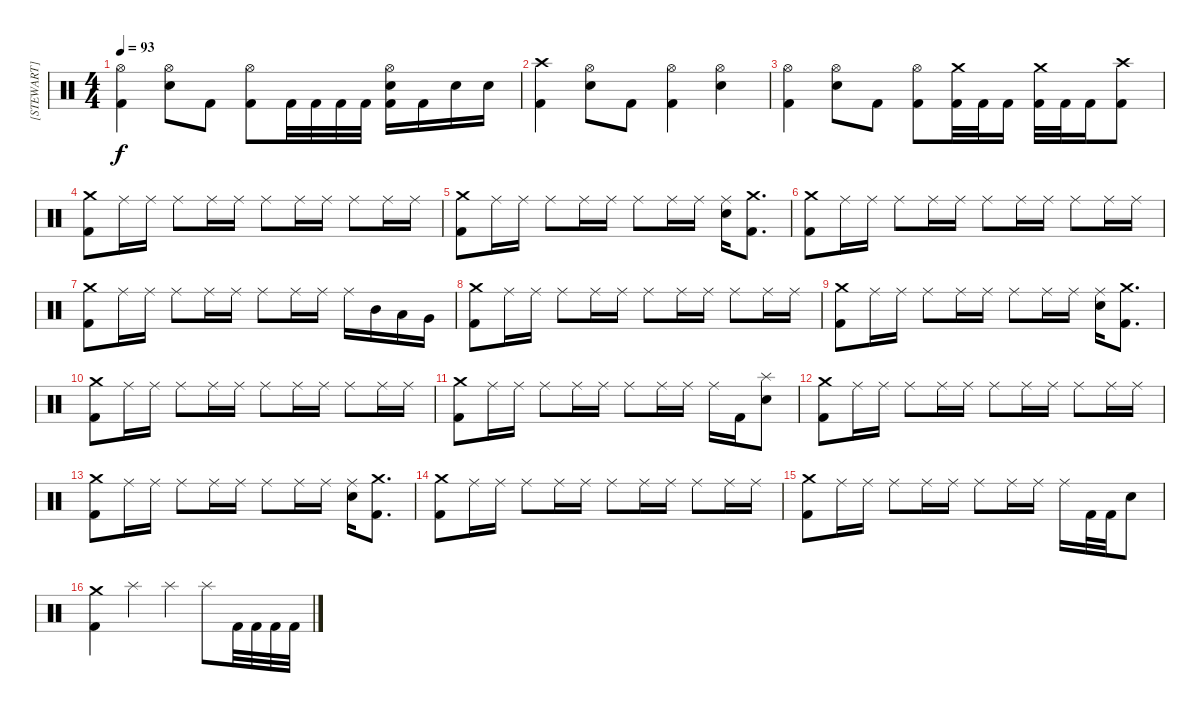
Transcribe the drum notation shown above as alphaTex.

\track ("[STEWART]" "[STEWART]") {instrument percussion}
\staff {score}
\articulation defaults
\ts (4 4)
\tempo 93
\clef neutral
\ks c
("Hi-Hat (open)" "Kick (hit) 2").4{dy f} ("Hi-Hat (open)" "Electric Snare (hit)").8 "Kick (hit) 2".8 ("Hi-Hat (open)" "Kick (hit) 2").8 "Kick (hit) 2".32 "Kick (hit) 2".32 "Kick (hit) 2".32 "Kick (hit) 2".32 ("Hi-Hat (open)" "Electric Snare (hit)" "Kick (hit) 2").16 "Kick (hit) 2".16 "Electric Snare (hit)".16 "Electric Snare (hit)".16 |
("Crash high (hit)" "Kick (hit) 2").4 ("Hi-Hat (open)" "Electric Snare (hit)").8 "Kick (hit) 2".8 ("Hi-Hat (open)" "Kick (hit) 2").4 ("Hi-Hat (open)" "Electric Snare (hit)").4 |
("Hi-Hat (open)" "Kick (hit) 2").4 ("Hi-Hat (open)" "Electric Snare (hit)").8 "Kick (hit) 2".8 ("Hi-Hat (open)" "Kick (hit) 2").8 ("Crash medium (hit)" "Kick (hit) 2").32 "Kick (hit) 2".32 "Kick (hit) 2".16 ("Crash medium (hit)" "Kick (hit) 2").32 "Kick (hit) 2".32 "Kick (hit) 2".16 ("Crash high (hit)" "Kick (hit) 2").8 |
("Crash medium (hit)" "Kick (hit) 2").8 "Ride (middle)".16 "Ride (middle)".16 "Ride (middle)".8 "Ride (middle)".16 "Ride (middle)".16 "Ride (middle)".8 "Ride (middle)".16 "Ride (middle)".16 "Ride (middle)".8 "Ride (middle)".16 "Ride (middle)".16 |
("Crash medium (hit)" "Kick (hit) 2").8 "Ride (middle)".16 "Ride (middle)".16 "Ride (middle)".8 "Ride (middle)".16 "Ride (middle)".16 "Ride (middle)".8 "Ride (middle)".16 "Ride (middle)".16 ("Ride (middle)" "Electric Snare (hit)").16 ("Crash medium (hit)" "Kick (hit) 2").8{d} |
("Crash medium (hit)" "Kick (hit) 2").8 "Ride (middle)".16 "Ride (middle)".16 "Ride (middle)".8 "Ride (middle)".16 "Ride (middle)".16 "Ride (middle)".8 "Ride (middle)".16 "Ride (middle)".16 "Ride (middle)".8 "Ride (middle)".16 "Ride (middle)".16 |
("Crash medium (hit)" "Kick (hit) 2").8 "Ride (middle)".16 "Ride (middle)".16 "Ride (middle)".8 "Ride (middle)".16 "Ride (middle)".16 "Ride (middle)".8 "Ride (middle)".16 "Ride (middle)".16 "Ride (middle)".16 "Mid Tom (hit)".16 "Low Tom (hit)".16 "Very Low Tom (hit)".16 |
("Crash medium (hit)" "Kick (hit) 2").8 "Ride (middle)".16 "Ride (middle)".16 "Ride (middle)".8 "Ride (middle)".16 "Ride (middle)".16 "Ride (middle)".8 "Ride (middle)".16 "Ride (middle)".16 "Ride (middle)".8 "Ride (middle)".16 "Ride (middle)".16 |
("Crash medium (hit)" "Kick (hit) 2").8 "Ride (middle)".16 "Ride (middle)".16 "Ride (middle)".8 "Ride (middle)".16 "Ride (middle)".16 "Ride (middle)".8 "Ride (middle)".16 "Ride (middle)".16 ("Ride (middle)" "Electric Snare (hit)").16 ("Crash medium (hit)" "Kick (hit) 2").8{d} |
("Crash medium (hit)" "Kick (hit) 2").8 "Ride (middle)".16 "Ride (middle)".16 "Ride (middle)".8 "Ride (middle)".16 "Ride (middle)".16 "Ride (middle)".8 "Ride (middle)".16 "Ride (middle)".16 "Ride (middle)".8 "Ride (middle)".16 "Ride (middle)".16 |
("Crash medium (hit)" "Kick (hit) 2").8 "Ride (middle)".16 "Ride (middle)".16 "Ride (middle)".8 "Ride (middle)".16 "Ride (middle)".16 "Ride (middle)".8 "Ride (middle)".16 "Ride (middle)".16 "Ride (middle)".16 "Kick (hit) 2".16 ("Splash (hit)" "Electric Snare (hit)").8 |
("Crash medium (hit)" "Kick (hit) 2").8 "Ride (middle)".16 "Ride (middle)".16 "Ride (middle)".8 "Ride (middle)".16 "Ride (middle)".16 "Ride (middle)".8 "Ride (middle)".16 "Ride (middle)".16 "Ride (middle)".8 "Ride (middle)".16 "Ride (middle)".16 |
("Crash medium (hit)" "Kick (hit) 2").8 "Ride (middle)".16 "Ride (middle)".16 "Ride (middle)".8 "Ride (middle)".16 "Ride (middle)".16 "Ride (middle)".8 "Ride (middle)".16 "Ride (middle)".16 ("Ride (middle)" "Electric Snare (hit)").16 ("Crash medium (hit)" "Kick (hit) 2").8{d} |
("Crash medium (hit)" "Kick (hit) 2").8 "Ride (middle)".16 "Ride (middle)".16 "Ride (middle)".8 "Ride (middle)".16 "Ride (middle)".16 "Ride (middle)".8 "Ride (middle)".16 "Ride (middle)".16 "Ride (middle)".8 "Ride (middle)".16 "Ride (middle)".16 |
("Crash medium (hit)" "Kick (hit) 2").8 "Ride (middle)".16 "Ride (middle)".16 "Ride (middle)".8 "Ride (middle)".16 "Ride (middle)".16 "Ride (middle)".8 "Ride (middle)".16 "Ride (middle)".16 "Ride (middle)".16 "Kick (hit) 2".32 "Kick (hit) 2".32 "Electric Snare (hit)".8 |
("Crash medium (hit)" "Kick (hit) 2").4 "Splash (hit)".4 "Splash (hit)".4 "Splash (hit)".8 "Kick (hit) 2".32 "Kick (hit) 2".32 "Kick (hit) 2".32 "Kick (hit) 2".32
